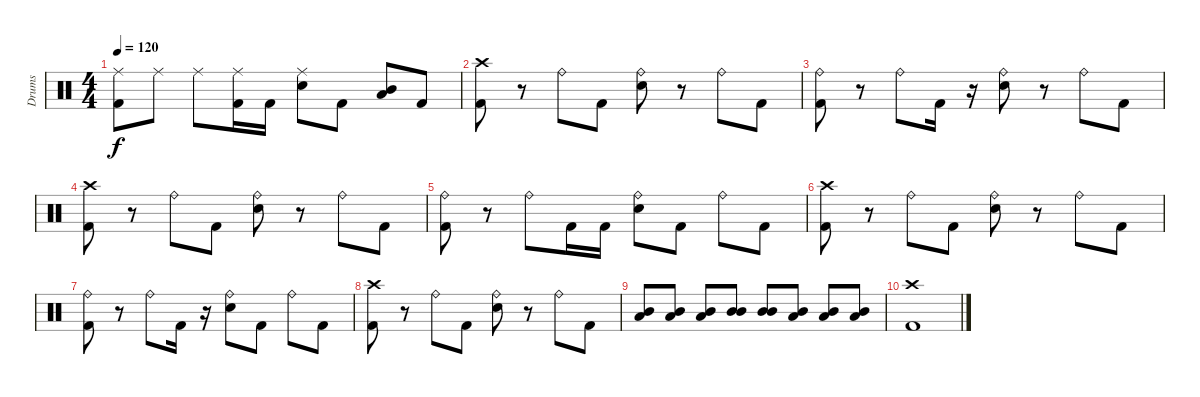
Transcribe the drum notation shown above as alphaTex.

\track ("Drums" "Drums") {instrument percussion}
\staff {score}
\articulation defaults
\ts (4 4)
\tempo 120
\clef neutral
\ks c
("Ride (middle)" "Kick (hit) 2").8{dy f} "Ride (middle)".8 "Ride (middle)".8 ("Ride (middle)" "Kick (hit) 2").16 "Kick (hit) 2".16 ("Ride (middle)" "Electric Snare (hit)").8 "Kick (hit) 2".8 ("Mid Tom (hit)" "Low Tom (hit)").8 "Kick (hit) 2".8 |
("Crash high (hit)" "Kick (hit) 2").8 r.8 "Ride (bell)".8 "Kick (hit) 2".8 ("Ride (bell)" "Electric Snare (hit)").8 r.8 "Ride (bell)".8 "Kick (hit) 2".8 |
("Ride (bell)" "Kick (hit) 2").8 r.8 "Ride (bell)".8 "Kick (hit) 2".16 r.16 ("Ride (bell)" "Electric Snare (hit)").8 r.8 "Ride (bell)".8 "Kick (hit) 2".8 |
("Crash high (hit)" "Kick (hit) 2").8 r.8 "Ride (bell)".8 "Kick (hit) 2".8 ("Ride (bell)" "Electric Snare (hit)").8 r.8 "Ride (bell)".8 "Kick (hit) 2".8 |
("Ride (bell)" "Kick (hit) 2").8 r.8 "Ride (bell)".8 "Kick (hit) 2".16 "Kick (hit) 2".16 ("Ride (bell)" "Electric Snare (hit)").8 "Kick (hit) 2".8 "Ride (bell)".8 "Kick (hit) 2".8 |
("Crash high (hit)" "Kick (hit) 2").8 r.8 "Ride (bell)".8 "Kick (hit) 2".8 ("Ride (bell)" "Electric Snare (hit)").8 r.8 "Ride (bell)".8 "Kick (hit) 2".8 |
("Ride (bell)" "Kick (hit) 2").8 r.8 "Ride (bell)".8 "Kick (hit) 2".16 r.16 ("Ride (bell)" "Electric Snare (hit)").8 "Kick (hit) 2".8 "Ride (bell)".8 "Kick (hit) 2".8 |
("Crash high (hit)" "Kick (hit) 2").8 r.8 "Ride (bell)".8 "Kick (hit) 2".8 ("Ride (bell)" "Electric Snare (hit)").8 r.8 "Ride (bell)".8 "Kick (hit) 2".8 |
("Low Tom (hit)" "Mid Tom (hit)").8 ("Low Tom (hit)" "Mid Tom (hit)").8 ("Low Tom (hit)" "Mid Tom (hit)").8 ("Mid Tom (hit)" "Mid Tom (hit)").8 ("Mid Tom (hit)" "Mid Tom (hit)").8 ("Low Tom (hit)" "Mid Tom (hit)").8 ("Low Tom (hit)" "Mid Tom (hit)").8 ("Low Tom (hit)" "Mid Tom (hit)").8 |
("Crash high (hit)" "Kick (hit) 2").1
